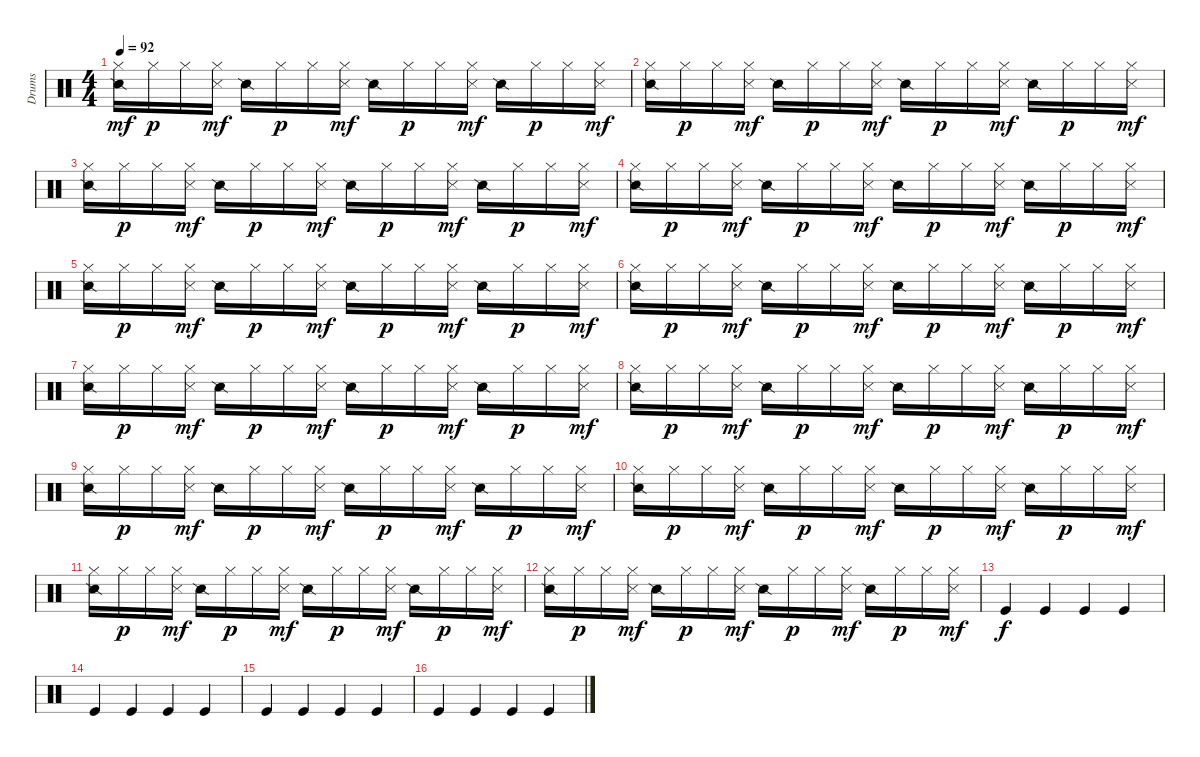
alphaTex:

\track ("Drums" "Drums") {instrument percussion}
\staff {score}
\articulation defaults
\ts (4 4)
\tempo 92
\clef neutral
\ks c
("Hi-Hat (closed)" "Snare (side stick) 2").16{dy mf} "Hi-Hat (closed)".16{dy p} "Hi-Hat (closed)".16 ("Hi-Hat (closed)" "Metronome (hit)").16{dy mf} "Snare (side stick) 2".16 "Hi-Hat (closed)".16{dy p} "Hi-Hat (closed)".16 ("Hi-Hat (closed)" "Metronome (hit)").16{dy mf} "Snare (side stick) 2".16 "Hi-Hat (closed)".16{dy p} "Hi-Hat (closed)".16 ("Hi-Hat (closed)" "Metronome (hit)").16{dy mf} "Snare (side stick) 2".16 "Hi-Hat (closed)".16{dy p} "Hi-Hat (closed)".16 ("Hi-Hat (closed)" "Metronome (hit)").16{dy mf} |
("Hi-Hat (closed)" "Snare (side stick) 2").16 "Hi-Hat (closed)".16{dy p} "Hi-Hat (closed)".16 ("Hi-Hat (closed)" "Metronome (hit)").16{dy mf} "Snare (side stick) 2".16 "Hi-Hat (closed)".16{dy p} "Hi-Hat (closed)".16 ("Hi-Hat (closed)" "Metronome (hit)").16{dy mf} "Snare (side stick) 2".16 "Hi-Hat (closed)".16{dy p} "Hi-Hat (closed)".16 ("Hi-Hat (closed)" "Metronome (hit)").16{dy mf} "Snare (side stick) 2".16 "Hi-Hat (closed)".16{dy p} "Hi-Hat (closed)".16 ("Hi-Hat (closed)" "Metronome (hit)").16{dy mf} |
("Hi-Hat (closed)" "Snare (side stick) 2").16 "Hi-Hat (closed)".16{dy p} "Hi-Hat (closed)".16 ("Hi-Hat (closed)" "Metronome (hit)").16{dy mf} "Snare (side stick) 2".16 "Hi-Hat (closed)".16{dy p} "Hi-Hat (closed)".16 ("Hi-Hat (closed)" "Metronome (hit)").16{dy mf} "Snare (side stick) 2".16 "Hi-Hat (closed)".16{dy p} "Hi-Hat (closed)".16 ("Hi-Hat (closed)" "Metronome (hit)").16{dy mf} "Snare (side stick) 2".16 "Hi-Hat (closed)".16{dy p} "Hi-Hat (closed)".16 ("Hi-Hat (closed)" "Metronome (hit)").16{dy mf} |
("Hi-Hat (closed)" "Snare (side stick) 2").16 "Hi-Hat (closed)".16{dy p} "Hi-Hat (closed)".16 ("Hi-Hat (closed)" "Metronome (hit)").16{dy mf} "Snare (side stick) 2".16 "Hi-Hat (closed)".16{dy p} "Hi-Hat (closed)".16 ("Hi-Hat (closed)" "Metronome (hit)").16{dy mf} "Snare (side stick) 2".16 "Hi-Hat (closed)".16{dy p} "Hi-Hat (closed)".16 ("Hi-Hat (closed)" "Metronome (hit)").16{dy mf} "Snare (side stick) 2".16 "Hi-Hat (closed)".16{dy p} "Hi-Hat (closed)".16 ("Hi-Hat (closed)" "Metronome (hit)").16{dy mf} |
("Hi-Hat (closed)" "Snare (side stick) 2").16 "Hi-Hat (closed)".16{dy p} "Hi-Hat (closed)".16 ("Hi-Hat (closed)" "Metronome (hit)").16{dy mf} "Snare (side stick) 2".16 "Hi-Hat (closed)".16{dy p} "Hi-Hat (closed)".16 ("Hi-Hat (closed)" "Metronome (hit)").16{dy mf} "Snare (side stick) 2".16 "Hi-Hat (closed)".16{dy p} "Hi-Hat (closed)".16 ("Hi-Hat (closed)" "Metronome (hit)").16{dy mf} "Snare (side stick) 2".16 "Hi-Hat (closed)".16{dy p} "Hi-Hat (closed)".16 ("Hi-Hat (closed)" "Metronome (hit)").16{dy mf} |
("Hi-Hat (closed)" "Snare (side stick) 2").16 "Hi-Hat (closed)".16{dy p} "Hi-Hat (closed)".16 ("Hi-Hat (closed)" "Metronome (hit)").16{dy mf} "Snare (side stick) 2".16 "Hi-Hat (closed)".16{dy p} "Hi-Hat (closed)".16 ("Hi-Hat (closed)" "Metronome (hit)").16{dy mf} "Snare (side stick) 2".16 "Hi-Hat (closed)".16{dy p} "Hi-Hat (closed)".16 ("Hi-Hat (closed)" "Metronome (hit)").16{dy mf} "Snare (side stick) 2".16 "Hi-Hat (closed)".16{dy p} "Hi-Hat (closed)".16 ("Hi-Hat (closed)" "Metronome (hit)").16{dy mf} |
("Hi-Hat (closed)" "Snare (side stick) 2").16 "Hi-Hat (closed)".16{dy p} "Hi-Hat (closed)".16 ("Hi-Hat (closed)" "Metronome (hit)").16{dy mf} "Snare (side stick) 2".16 "Hi-Hat (closed)".16{dy p} "Hi-Hat (closed)".16 ("Hi-Hat (closed)" "Metronome (hit)").16{dy mf} "Snare (side stick) 2".16 "Hi-Hat (closed)".16{dy p} "Hi-Hat (closed)".16 ("Hi-Hat (closed)" "Metronome (hit)").16{dy mf} "Snare (side stick) 2".16 "Hi-Hat (closed)".16{dy p} "Hi-Hat (closed)".16 ("Hi-Hat (closed)" "Metronome (hit)").16{dy mf} |
("Hi-Hat (closed)" "Snare (side stick) 2").16 "Hi-Hat (closed)".16{dy p} "Hi-Hat (closed)".16 ("Hi-Hat (closed)" "Metronome (hit)").16{dy mf} "Snare (side stick) 2".16 "Hi-Hat (closed)".16{dy p} "Hi-Hat (closed)".16 ("Hi-Hat (closed)" "Metronome (hit)").16{dy mf} "Snare (side stick) 2".16 "Hi-Hat (closed)".16{dy p} "Hi-Hat (closed)".16 ("Hi-Hat (closed)" "Metronome (hit)").16{dy mf} "Snare (side stick) 2".16 "Hi-Hat (closed)".16{dy p} "Hi-Hat (closed)".16 ("Hi-Hat (closed)" "Metronome (hit)").16{dy mf} |
("Hi-Hat (closed)" "Snare (side stick) 2").16 "Hi-Hat (closed)".16{dy p} "Hi-Hat (closed)".16 ("Hi-Hat (closed)" "Metronome (hit)").16{dy mf} "Snare (side stick) 2".16 "Hi-Hat (closed)".16{dy p} "Hi-Hat (closed)".16 ("Hi-Hat (closed)" "Metronome (hit)").16{dy mf} "Snare (side stick) 2".16 "Hi-Hat (closed)".16{dy p} "Hi-Hat (closed)".16 ("Hi-Hat (closed)" "Metronome (hit)").16{dy mf} "Snare (side stick) 2".16 "Hi-Hat (closed)".16{dy p} "Hi-Hat (closed)".16 ("Hi-Hat (closed)" "Metronome (hit)").16{dy mf} |
("Hi-Hat (closed)" "Snare (side stick) 2").16 "Hi-Hat (closed)".16{dy p} "Hi-Hat (closed)".16 ("Hi-Hat (closed)" "Metronome (hit)").16{dy mf} "Snare (side stick) 2".16 "Hi-Hat (closed)".16{dy p} "Hi-Hat (closed)".16 ("Hi-Hat (closed)" "Metronome (hit)").16{dy mf} "Snare (side stick) 2".16 "Hi-Hat (closed)".16{dy p} "Hi-Hat (closed)".16 ("Hi-Hat (closed)" "Metronome (hit)").16{dy mf} "Snare (side stick) 2".16 "Hi-Hat (closed)".16{dy p} "Hi-Hat (closed)".16 ("Hi-Hat (closed)" "Metronome (hit)").16{dy mf} |
("Hi-Hat (closed)" "Snare (side stick) 2").16 "Hi-Hat (closed)".16{dy p} "Hi-Hat (closed)".16 ("Hi-Hat (closed)" "Metronome (hit)").16{dy mf} "Snare (side stick) 2".16 "Hi-Hat (closed)".16{dy p} "Hi-Hat (closed)".16 ("Hi-Hat (closed)" "Metronome (hit)").16{dy mf} "Snare (side stick) 2".16 "Hi-Hat (closed)".16{dy p} "Hi-Hat (closed)".16 ("Hi-Hat (closed)" "Metronome (hit)").16{dy mf} "Snare (side stick) 2".16 "Hi-Hat (closed)".16{dy p} "Hi-Hat (closed)".16 ("Hi-Hat (closed)" "Metronome (hit)").16{dy mf} |
("Hi-Hat (closed)" "Snare (side stick) 2").16 "Hi-Hat (closed)".16{dy p} "Hi-Hat (closed)".16 ("Hi-Hat (closed)" "Metronome (hit)").16{dy mf} "Snare (side stick) 2".16 "Hi-Hat (closed)".16{dy p} "Hi-Hat (closed)".16 ("Hi-Hat (closed)" "Metronome (hit)").16{dy mf} "Snare (side stick) 2".16 "Hi-Hat (closed)".16{dy p} "Hi-Hat (closed)".16 ("Hi-Hat (closed)" "Metronome (hit)").16{dy mf} "Snare (side stick) 2".16 "Hi-Hat (closed)".16{dy p} "Hi-Hat (closed)".16 ("Hi-Hat (closed)" "Metronome (hit)").16{dy mf} |
"Kick (hit)".4{dy f} "Kick (hit)".4 "Kick (hit)".4 "Kick (hit)".4 |
"Kick (hit)".4 "Kick (hit)".4 "Kick (hit)".4 "Kick (hit)".4 |
"Kick (hit)".4 "Kick (hit)".4 "Kick (hit)".4 "Kick (hit)".4 |
"Kick (hit)".4 "Kick (hit)".4 "Kick (hit)".4 "Kick (hit)".4
